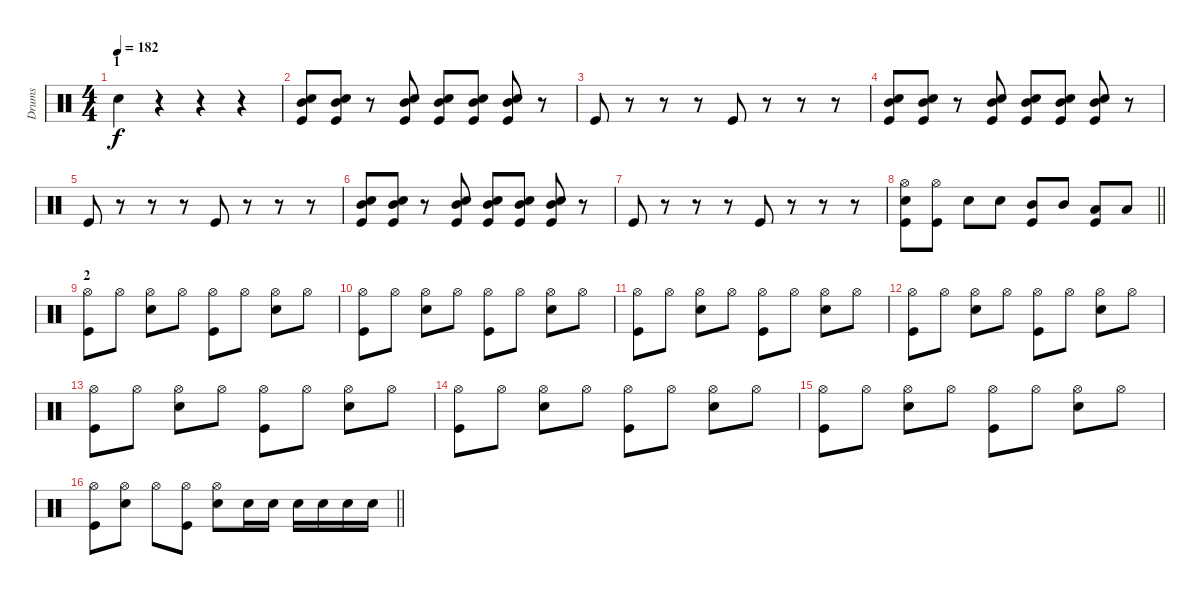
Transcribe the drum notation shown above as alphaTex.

\track ("Drums" "Drums") {instrument percussion}
\staff {score}
\articulation defaults
\ts (4 4)
\section ("" "1")
\tempo 182
\clef neutral
\ks c "Electric Snare (hit)".4{dy f}
r.4 r.4 r.4 |
("Mid Tom (hit)" "Electric Snare (hit)" "Kick (hit)").8 ("Mid Tom (hit)" "Electric Snare (hit)" "Kick (hit)").8 r.8 ("Mid Tom (hit)" "Electric Snare (hit)" "Kick (hit)").8 ("Mid Tom (hit)" "Electric Snare (hit)" "Kick (hit)").8 ("Mid Tom (hit)" "Electric Snare (hit)" "Kick (hit)").8 ("Mid Tom (hit)" "Electric Snare (hit)" "Kick (hit)").8 r.8 |
"Kick (hit)".8 r.8 r.8 r.8 "Kick (hit)".8 r.8 r.8 r.8 |
("Mid Tom (hit)" "Electric Snare (hit)" "Kick (hit)").8 ("Mid Tom (hit)" "Electric Snare (hit)" "Kick (hit)").8 r.8 ("Mid Tom (hit)" "Electric Snare (hit)" "Kick (hit)").8 ("Mid Tom (hit)" "Electric Snare (hit)" "Kick (hit)").8 ("Mid Tom (hit)" "Electric Snare (hit)" "Kick (hit)").8 ("Mid Tom (hit)" "Electric Snare (hit)" "Kick (hit)").8 r.8 |
"Kick (hit)".8 r.8 r.8 r.8 "Kick (hit)".8 r.8 r.8 r.8 |
("Mid Tom (hit)" "Electric Snare (hit)" "Kick (hit)").8 ("Mid Tom (hit)" "Electric Snare (hit)" "Kick (hit)").8 r.8 ("Mid Tom (hit)" "Electric Snare (hit)" "Kick (hit)").8 ("Mid Tom (hit)" "Electric Snare (hit)" "Kick (hit)").8 ("Mid Tom (hit)" "Electric Snare (hit)" "Kick (hit)").8 ("Mid Tom (hit)" "Electric Snare (hit)" "Kick (hit)").8 r.8 |
"Kick (hit)".8 r.8 r.8 r.8 "Kick (hit)".8 r.8 r.8 r.8 |
\barLineRight lightlight
("Hi-Hat (open)" "Electric Snare (hit)" "Kick (hit)").8 ("Hi-Hat (open)" "Kick (hit)").8 "Electric Snare (hit)".8 "Electric Snare (hit)".8 ("Mid Tom (hit)" "Kick (hit)").8 "Mid Tom (hit)".8 ("Low Tom (hit)" "Kick (hit)").8 "Low Tom (hit)".8 |
\section ("" "2")
("Hi-Hat (open)" "Kick (hit)").8 "Hi-Hat (open)".8 ("Hi-Hat (open)" "Electric Snare (hit)").8 "Hi-Hat (open)".8 ("Hi-Hat (open)" "Kick (hit)").8 "Hi-Hat (open)".8 ("Hi-Hat (open)" "Electric Snare (hit)").8 "Hi-Hat (open)".8 |
("Hi-Hat (open)" "Kick (hit)").8 "Hi-Hat (open)".8 ("Hi-Hat (open)" "Electric Snare (hit)").8 "Hi-Hat (open)".8 ("Hi-Hat (open)" "Kick (hit)").8 "Hi-Hat (open)".8 ("Hi-Hat (open)" "Electric Snare (hit)").8 "Hi-Hat (open)".8 |
("Hi-Hat (open)" "Kick (hit)").8 "Hi-Hat (open)".8 ("Hi-Hat (open)" "Electric Snare (hit)").8 "Hi-Hat (open)".8 ("Hi-Hat (open)" "Kick (hit)").8 "Hi-Hat (open)".8 ("Hi-Hat (open)" "Electric Snare (hit)").8 "Hi-Hat (open)".8 |
("Hi-Hat (open)" "Kick (hit)").8 "Hi-Hat (open)".8 ("Hi-Hat (open)" "Electric Snare (hit)").8 "Hi-Hat (open)".8 ("Hi-Hat (open)" "Kick (hit)").8 "Hi-Hat (open)".8 ("Hi-Hat (open)" "Electric Snare (hit)").8 "Hi-Hat (open)".8 |
("Hi-Hat (open)" "Kick (hit)").8 "Hi-Hat (open)".8 ("Hi-Hat (open)" "Electric Snare (hit)").8 "Hi-Hat (open)".8 ("Hi-Hat (open)" "Kick (hit)").8 "Hi-Hat (open)".8 ("Hi-Hat (open)" "Electric Snare (hit)").8 "Hi-Hat (open)".8 |
("Hi-Hat (open)" "Kick (hit)").8 "Hi-Hat (open)".8 ("Hi-Hat (open)" "Electric Snare (hit)").8 "Hi-Hat (open)".8 ("Hi-Hat (open)" "Kick (hit)").8 "Hi-Hat (open)".8 ("Hi-Hat (open)" "Electric Snare (hit)").8 "Hi-Hat (open)".8 |
("Hi-Hat (open)" "Kick (hit)").8 "Hi-Hat (open)".8 ("Hi-Hat (open)" "Electric Snare (hit)").8 "Hi-Hat (open)".8 ("Hi-Hat (open)" "Kick (hit)").8 "Hi-Hat (open)".8 ("Hi-Hat (open)" "Electric Snare (hit)").8 "Hi-Hat (open)".8 |
\barLineRight lightlight
("Hi-Hat (open)" "Kick (hit)").8 ("Hi-Hat (open)" "Electric Snare (hit)").8 "Hi-Hat (open)".8 ("Hi-Hat (open)" "Kick (hit)").8 ("Hi-Hat (open)" "Electric Snare (hit)").8 "Electric Snare (hit)".16 "Electric Snare (hit)".16 "Electric Snare (hit)".16 "Electric Snare (hit)".16 "Electric Snare (hit)".16 "Electric Snare (hit)".16
